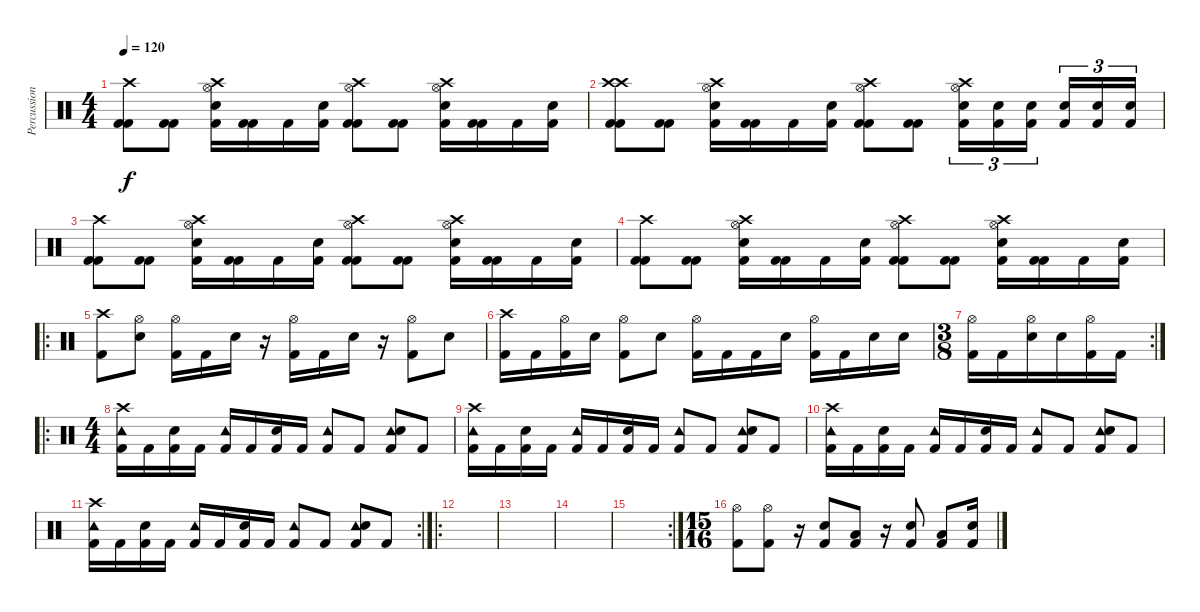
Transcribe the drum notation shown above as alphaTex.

\track ("Percussion" "Percussion") {instrument percussion}
\staff {score}
\articulation defaults
\ts (4 4)
\tempo 120
\clef neutral
\ks c
("Crash high (hit)" "Kick (hit) 2" "Kick (hit) 2").8{dy f} ("Kick (hit) 2" "Kick (hit) 2").8 ("Crash high (hit)" "Hi-Hat (open)" "Electric Snare (hit)" "Kick (hit) 2").16 ("Kick (hit) 2" "Kick (hit) 2").16 "Kick (hit) 2".16 ("Electric Snare (hit)" "Kick (hit) 2").16 ("Crash high (hit)" "Hi-Hat (open)" "Kick (hit) 2" "Kick (hit) 2").8 ("Kick (hit) 2" "Kick (hit) 2").8 ("Crash high (hit)" "Hi-Hat (open)" "Electric Snare (hit)" "Kick (hit) 2").16 ("Kick (hit) 2" "Kick (hit) 2").16 "Kick (hit) 2".16 ("Electric Snare (hit)" "Kick (hit) 2").16 |
("Crash high (hit)" "Crash high (hit)" "Kick (hit) 2" "Kick (hit) 2").8 ("Kick (hit) 2" "Kick (hit) 2").8 ("Crash high (hit)" "Hi-Hat (open)" "Electric Snare (hit)" "Kick (hit) 2").16 ("Kick (hit) 2" "Kick (hit) 2").16 "Kick (hit) 2".16 ("Electric Snare (hit)" "Kick (hit) 2").16 ("Crash high (hit)" "Hi-Hat (open)" "Kick (hit) 2" "Kick (hit) 2").8 ("Kick (hit) 2" "Kick (hit) 2").8 ("Crash high (hit)" "Hi-Hat (open)" "Electric Snare (hit)" "Kick (hit) 2").16{tu (3 2)} ("Electric Snare (hit)" "Kick (hit) 2").16{tu (3 2)} ("Electric Snare (hit)" "Kick (hit) 2").16{tu (3 2)} ("Electric Snare (hit)" "Kick (hit) 2").16{tu (3 2)} ("Electric Snare (hit)" "Kick (hit) 2").16{tu (3 2)} ("Electric Snare (hit)" "Kick (hit) 2").16{tu (3 2)} |
("Crash high (hit)" "Kick (hit) 2" "Kick (hit) 2").8 ("Kick (hit) 2" "Kick (hit) 2").8 ("Crash high (hit)" "Hi-Hat (open)" "Electric Snare (hit)" "Kick (hit) 2").16 ("Kick (hit) 2" "Kick (hit) 2").16 "Kick (hit) 2".16 ("Electric Snare (hit)" "Kick (hit) 2").16 ("Crash high (hit)" "Hi-Hat (open)" "Kick (hit) 2" "Kick (hit) 2").8 ("Kick (hit) 2" "Kick (hit) 2").8 ("Crash high (hit)" "Hi-Hat (open)" "Electric Snare (hit)" "Kick (hit) 2").16 ("Kick (hit) 2" "Kick (hit) 2").16 "Kick (hit) 2".16 ("Electric Snare (hit)" "Kick (hit) 2").16 |
("Crash high (hit)" "Kick (hit) 2" "Kick (hit) 2").8 ("Kick (hit) 2" "Kick (hit) 2").8 ("Crash high (hit)" "Hi-Hat (open)" "Electric Snare (hit)" "Kick (hit) 2").16 ("Kick (hit) 2" "Kick (hit) 2").16 "Kick (hit) 2".16 ("Electric Snare (hit)" "Kick (hit) 2").16 ("Crash high (hit)" "Hi-Hat (open)" "Kick (hit) 2" "Kick (hit) 2").8 ("Kick (hit) 2" "Kick (hit) 2").8 ("Crash high (hit)" "Hi-Hat (open)" "Electric Snare (hit)" "Kick (hit) 2").16 ("Kick (hit) 2" "Kick (hit) 2").16 "Kick (hit) 2".16 ("Electric Snare (hit)" "Kick (hit) 2").16 |
\ro
("Crash high (hit)" "Kick (hit) 2").8 ("Hi-Hat (open)" "Electric Snare (hit)").8 ("Hi-Hat (open)" "Kick (hit) 2").16 "Kick (hit) 2".16 "Electric Snare (hit)".16 r.16 ("Hi-Hat (open)" "Kick (hit) 2").16 "Kick (hit) 2".16 "Electric Snare (hit)".16 r.16 ("Hi-Hat (open)" "Kick (hit) 2").8 "Electric Snare (hit)".8 |
("Crash high (hit)" "Kick (hit) 2").16 "Kick (hit) 2".16 ("Hi-Hat (open)" "Kick (hit) 2").16 "Electric Snare (hit)".16 ("Hi-Hat (open)" "Kick (hit) 2").8 "Electric Snare (hit)".8 ("Hi-Hat (open)" "Kick (hit) 2").16 "Kick (hit) 2".16 "Kick (hit) 2".16 "Electric Snare (hit)".16 ("Hi-Hat (open)" "Kick (hit) 2").16 "Kick (hit) 2".16 "Electric Snare (hit)".16 "Electric Snare (hit)".16 |
\rc 2
\ts (3 8)
("Hi-Hat (open)" "Kick (hit) 2").16 "Kick (hit) 2".16 ("Hi-Hat (open)" "Electric Snare (hit)").16 "Electric Snare (hit)".16 ("Hi-Hat (open)" "Kick (hit) 2").16 "Kick (hit) 2".16 |
\ro
\ts (4 4)
("Tambourine (hit)" "Crash high (hit)" "Kick (hit) 2").16 "Kick (hit) 2".16 ("Electric Snare (hit)" "Kick (hit) 2").16 "Kick (hit) 2".16 ("Tambourine (hit)" "Kick (hit) 2").16 "Kick (hit) 2".16 ("Electric Snare (hit)" "Kick (hit) 2").16 "Kick (hit) 2".16 ("Tambourine (hit)" "Kick (hit) 2").8 "Kick (hit) 2".8 ("Tambourine (hit)" "Electric Snare (hit)" "Kick (hit) 2").8 "Kick (hit) 2".8 |
("Tambourine (hit)" "Crash high (hit)" "Kick (hit) 2").16 "Kick (hit) 2".16 ("Electric Snare (hit)" "Kick (hit) 2").16 "Kick (hit) 2".16 ("Tambourine (hit)" "Kick (hit) 2").16 "Kick (hit) 2".16 ("Electric Snare (hit)" "Kick (hit) 2").16 "Kick (hit) 2".16 ("Tambourine (hit)" "Kick (hit) 2").8 "Kick (hit) 2".8 ("Tambourine (hit)" "Electric Snare (hit)" "Kick (hit) 2").8 "Kick (hit) 2".8 |
("Tambourine (hit)" "Crash high (hit)" "Kick (hit) 2").16 "Kick (hit) 2".16 ("Electric Snare (hit)" "Kick (hit) 2").16 "Kick (hit) 2".16 ("Tambourine (hit)" "Kick (hit) 2").16 "Kick (hit) 2".16 ("Electric Snare (hit)" "Kick (hit) 2").16 "Kick (hit) 2".16 ("Tambourine (hit)" "Kick (hit) 2").8 "Kick (hit) 2".8 ("Tambourine (hit)" "Electric Snare (hit)" "Kick (hit) 2").8 "Kick (hit) 2".8 |
\rc 2
("Tambourine (hit)" "Crash high (hit)" "Kick (hit) 2").16 "Kick (hit) 2".16 ("Electric Snare (hit)" "Kick (hit) 2").16 "Kick (hit) 2".16 ("Tambourine (hit)" "Kick (hit) 2").16 "Kick (hit) 2".16 ("Electric Snare (hit)" "Kick (hit) 2").16 "Kick (hit) 2".16 ("Tambourine (hit)" "Kick (hit) 2").8 "Kick (hit) 2".8 ("Tambourine (hit)" "Electric Snare (hit)" "Kick (hit) 2").8 "Kick (hit) 2".8 |
\ro
|
|
|
\rc 2
|
\ts (15 16)
("Hi-Hat (open)" "Kick (hit) 2").8 ("Hi-Hat (open)" "Kick (hit) 2").8 r.16 ("Electric Snare (hit)" "Kick (hit) 2").8 ("Low Floor Tom (hit)" "Kick (hit) 2").8 r.16 ("Electric Snare (hit)" "Kick (hit) 2").8 ("Low Floor Tom (hit)" "Kick (hit) 2").8 ("Electric Snare (hit)" "Kick (hit) 2").16
